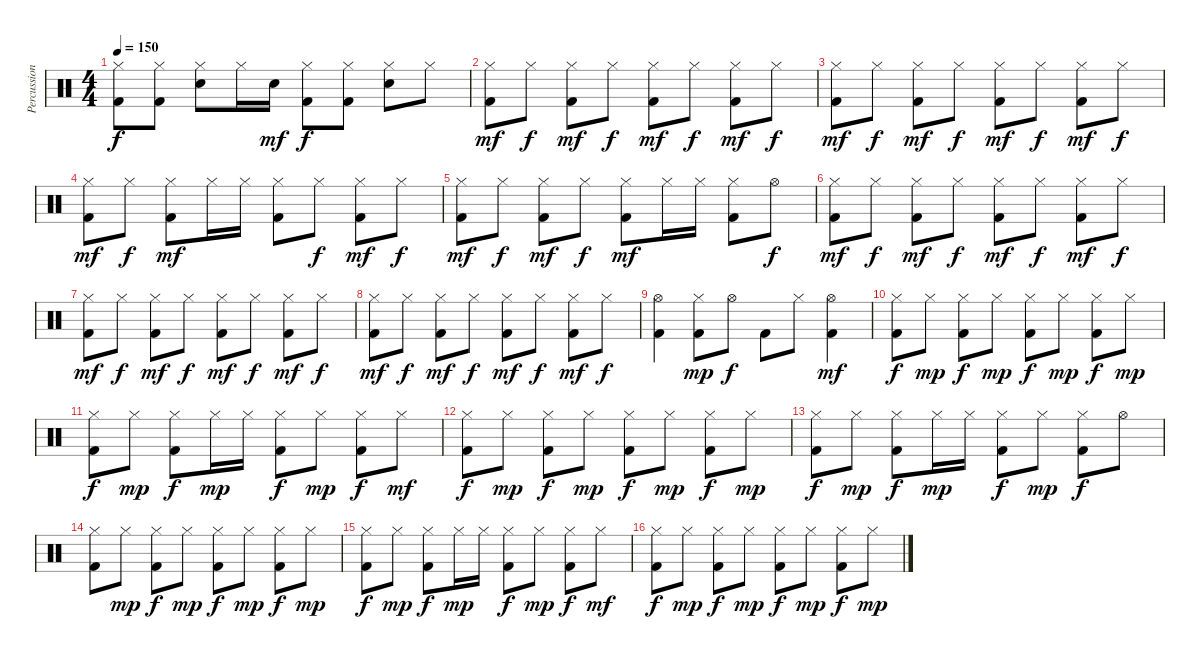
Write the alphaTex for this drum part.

\track ("Percussion" "Percussion") {instrument percussion}
\staff {score}
\articulation defaults
\ts (4 4)
\tempo 150
\clef neutral
\ks c
("Kick (hit) 2" "Hi-Hat (closed)").8{dy f} ("Kick (hit) 2" "Hi-Hat (closed)").8 ("Electric Snare (hit)" "Hi-Hat (closed)").8 "Hi-Hat (closed)".16 "Electric Snare (hit)".16{dy mf} ("Kick (hit) 2" "Hi-Hat (closed)").8{dy f} ("Kick (hit) 2" "Hi-Hat (closed)").8 ("Electric Snare (hit)" "Hi-Hat (closed)").8 "Hi-Hat (closed)".8 |
("Kick (hit) 2" "Hi-Hat (closed)").8{dy mf} "Hi-Hat (closed)".8{dy f} ("Kick (hit) 2" "Hi-Hat (closed)").8{dy mf} "Hi-Hat (closed)".8{dy f} ("Kick (hit) 2" "Hi-Hat (closed)").8{dy mf} "Hi-Hat (closed)".8{dy f} ("Kick (hit) 2" "Hi-Hat (closed)").8{dy mf} "Hi-Hat (closed)".8{dy f} |
("Kick (hit) 2" "Hi-Hat (closed)").8{dy mf} "Hi-Hat (closed)".8{dy f} ("Kick (hit) 2" "Hi-Hat (closed)").8{dy mf} "Hi-Hat (closed)".8{dy f} ("Kick (hit) 2" "Hi-Hat (closed)").8{dy mf} "Hi-Hat (closed)".8{dy f} ("Kick (hit) 2" "Hi-Hat (closed)").8{dy mf} "Hi-Hat (closed)".8{dy f} |
("Kick (hit) 2" "Hi-Hat (closed)").8{dy mf} "Hi-Hat (closed)".8{dy f} ("Kick (hit) 2" "Hi-Hat (closed)").8{dy mf} "Hi-Hat (closed)".16 "Hi-Hat (closed)".16 ("Kick (hit) 2" "Hi-Hat (closed)").8 "Hi-Hat (closed)".8{dy f} ("Kick (hit) 2" "Hi-Hat (closed)").8{dy mf} "Hi-Hat (closed)".8{dy f} |
("Kick (hit) 2" "Hi-Hat (closed)").8{dy mf} "Hi-Hat (closed)".8{dy f} ("Kick (hit) 2" "Hi-Hat (closed)").8{dy mf} "Hi-Hat (closed)".8{dy f} ("Kick (hit) 2" "Hi-Hat (closed)").8{dy mf} "Hi-Hat (closed)".16 "Hi-Hat (closed)".16 ("Kick (hit) 2" "Hi-Hat (closed)").8 "Hi-Hat (open)".8{dy f} |
("Kick (hit) 2" "Hi-Hat (closed)").8{dy mf} "Hi-Hat (closed)".8{dy f} ("Kick (hit) 2" "Hi-Hat (closed)").8{dy mf} "Hi-Hat (closed)".8{dy f} ("Kick (hit) 2" "Hi-Hat (closed)").8{dy mf} "Hi-Hat (closed)".8{dy f} ("Kick (hit) 2" "Hi-Hat (closed)").8{dy mf} "Hi-Hat (closed)".8{dy f} |
("Kick (hit) 2" "Hi-Hat (closed)").8{dy mf} "Hi-Hat (closed)".8{dy f} ("Kick (hit) 2" "Hi-Hat (closed)").8{dy mf} "Hi-Hat (closed)".8{dy f} ("Kick (hit) 2" "Hi-Hat (closed)").8{dy mf} "Hi-Hat (closed)".8{dy f} ("Kick (hit) 2" "Hi-Hat (closed)").8{dy mf} "Hi-Hat (closed)".8{dy f} |
("Kick (hit) 2" "Hi-Hat (closed)").8{dy mf} "Hi-Hat (closed)".8{dy f} ("Kick (hit) 2" "Hi-Hat (closed)").8{dy mf} "Hi-Hat (closed)".8{dy f} ("Kick (hit) 2" "Hi-Hat (closed)").8{dy mf} "Hi-Hat (closed)".8{dy f} ("Kick (hit) 2" "Hi-Hat (closed)").8{dy mf} "Hi-Hat (closed)".8{dy f} |
("Kick (hit) 2" "Hi-Hat (open)").4 ("Kick (hit) 2" "Hi-Hat (closed)").8{dy mp} "Hi-Hat (open)".8{dy f} "Kick (hit) 2".8 "Hi-Hat (closed)".8 ("Hi-Hat (open)" "Kick (hit) 2").4{dy mf} |
("Kick (hit) 2" "Hi-Hat (closed)").8{dy f} "Hi-Hat (closed)".8{dy mp} ("Kick (hit) 2" "Hi-Hat (closed)").8{dy f} "Hi-Hat (closed)".8{dy mp} ("Kick (hit) 2" "Hi-Hat (closed)").8{dy f} "Hi-Hat (closed)".8{dy mp} ("Kick (hit) 2" "Hi-Hat (closed)").8{dy f} "Hi-Hat (closed)".8{dy mp} |
("Kick (hit) 2" "Hi-Hat (closed)").8{dy f} "Hi-Hat (closed)".8{dy mp} ("Kick (hit) 2" "Hi-Hat (closed)").8{dy f} "Hi-Hat (closed)".16{dy mp} "Hi-Hat (closed)".16 ("Kick (hit) 2" "Hi-Hat (closed)").8{dy f} "Hi-Hat (closed)".8{dy mp} ("Hi-Hat (closed)" "Kick (hit) 2").8{dy f} "Hi-Hat (closed)".8{dy mf} |
("Kick (hit) 2" "Hi-Hat (closed)").8{dy f} "Hi-Hat (closed)".8{dy mp} ("Kick (hit) 2" "Hi-Hat (closed)").8{dy f} "Hi-Hat (closed)".8{dy mp} ("Kick (hit) 2" "Hi-Hat (closed)").8{dy f} "Hi-Hat (closed)".8{dy mp} ("Kick (hit) 2" "Hi-Hat (closed)").8{dy f} "Hi-Hat (closed)".8{dy mp} |
("Kick (hit) 2" "Hi-Hat (closed)").8{dy f} "Hi-Hat (closed)".8{dy mp} ("Kick (hit) 2" "Hi-Hat (closed)").8{dy f} "Hi-Hat (closed)".16{dy mp} "Hi-Hat (closed)".16 ("Kick (hit) 2" "Hi-Hat (closed)").8{dy f} "Hi-Hat (closed)".8{dy mp} ("Hi-Hat (closed)" "Kick (hit) 2").8{dy f} "Hi-Hat (open)".8 |
("Kick (hit) 2" "Hi-Hat (closed)").8 "Hi-Hat (closed)".8{dy mp} ("Kick (hit) 2" "Hi-Hat (closed)").8{dy f} "Hi-Hat (closed)".8{dy mp} ("Kick (hit) 2" "Hi-Hat (closed)").8{dy f} "Hi-Hat (closed)".8{dy mp} ("Kick (hit) 2" "Hi-Hat (closed)").8{dy f} "Hi-Hat (closed)".8{dy mp} |
("Kick (hit) 2" "Hi-Hat (closed)").8{dy f} "Hi-Hat (closed)".8{dy mp} ("Kick (hit) 2" "Hi-Hat (closed)").8{dy f} "Hi-Hat (closed)".16{dy mp} "Hi-Hat (closed)".16 ("Kick (hit) 2" "Hi-Hat (closed)").8{dy f} "Hi-Hat (closed)".8{dy mp} ("Hi-Hat (closed)" "Kick (hit) 2").8{dy f} "Hi-Hat (closed)".8{dy mf} |
("Kick (hit) 2" "Hi-Hat (closed)").8{dy f} "Hi-Hat (closed)".8{dy mp} ("Kick (hit) 2" "Hi-Hat (closed)").8{dy f} "Hi-Hat (closed)".8{dy mp} ("Kick (hit) 2" "Hi-Hat (closed)").8{dy f} "Hi-Hat (closed)".8{dy mp} ("Kick (hit) 2" "Hi-Hat (closed)").8{dy f} "Hi-Hat (closed)".8{dy mp}
